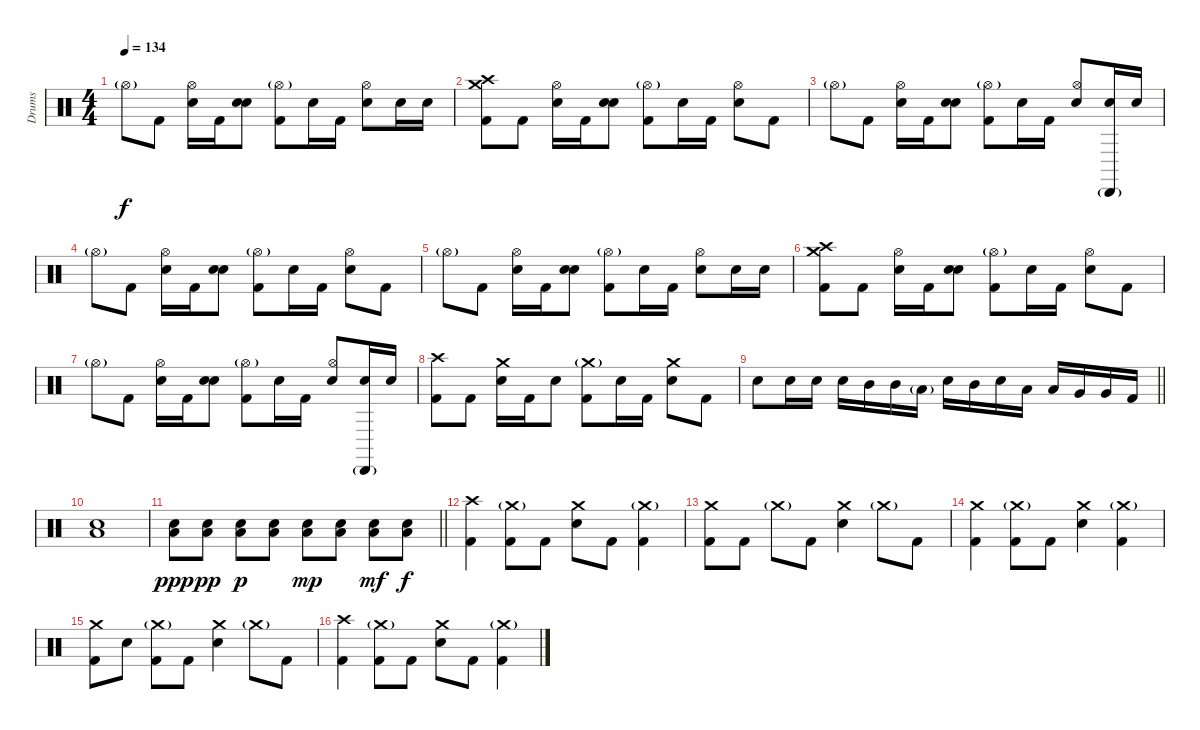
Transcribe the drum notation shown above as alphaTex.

\track ("Drums" "Drums") {instrument percussion}
\staff {score}
\articulation defaults
\ts (4 4)
\tempo 134
\clef neutral
\ks c "Hi-Hat (open)"{g}.8{dy f} "Kick (hit) 2".8
("Hi-Hat (open)" "Snare (hit) 2").16 "Kick (hit) 2".16 ("Snare (hit)" "Snare (hit)").8 ("Hi-Hat (open)"{g} "Kick (hit) 2").8 "Snare (hit)".16 "Kick (hit) 2".16 ("Hi-Hat (open)" "Snare (hit) 2").8 "Snare (hit) 2".16 "Snare (hit) 2".16 |
("Crash high (hit)" "Crash medium (hit)" "Kick (hit) 2").8 "Kick (hit) 2".8 ("Hi-Hat (open)" "Snare (hit) 2").16 "Kick (hit) 2".16 ("Snare (hit)" "Snare (hit)").8 ("Hi-Hat (open)"{g} "Kick (hit) 2").8 "Snare (hit)".16 "Kick (hit) 2".16 ("Hi-Hat (open)" "Snare (hit) 2").8 "Kick (hit) 2".8 |
"Hi-Hat (open)"{g}.8 "Kick (hit) 2".8 ("Hi-Hat (open)" "Snare (hit) 2").16 "Kick (hit) 2".16 ("Snare (hit)" "Snare (hit)").8 ("Hi-Hat (open)"{g} "Kick (hit) 2").8 "Snare (hit)".16 "Kick (hit) 2".16 ("Hi-Hat (open)" "Snare (hit) 2").8 ("Cabasa (hit)"{g} "Snare (hit)").16 "Snare (hit) 2".16 |
"Hi-Hat (open)"{g}.8 "Kick (hit) 2".8 ("Hi-Hat (open)" "Snare (hit) 2").16 "Kick (hit) 2".16 ("Snare (hit)" "Snare (hit)").8 ("Hi-Hat (open)"{g} "Kick (hit) 2").8 "Snare (hit)".16 "Kick (hit) 2".16 ("Hi-Hat (open)" "Snare (hit) 2").8 "Kick (hit) 2".8 |
"Hi-Hat (open)"{g}.8 "Kick (hit) 2".8 ("Hi-Hat (open)" "Snare (hit) 2").16 "Kick (hit) 2".16 ("Snare (hit)" "Snare (hit)").8 ("Hi-Hat (open)"{g} "Kick (hit) 2").8 "Snare (hit)".16 "Kick (hit) 2".16 ("Hi-Hat (open)" "Snare (hit) 2").8 "Snare (hit) 2".16 "Snare (hit) 2".16 |
("Crash high (hit)" "Crash medium (hit)" "Kick (hit) 2").8 "Kick (hit) 2".8 ("Hi-Hat (open)" "Snare (hit) 2").16 "Kick (hit) 2".16 ("Snare (hit)" "Snare (hit)").8 ("Hi-Hat (open)"{g} "Kick (hit) 2").8 "Snare (hit)".16 "Kick (hit) 2".16 ("Hi-Hat (open)" "Snare (hit) 2").8 "Kick (hit) 2".8 |
"Hi-Hat (open)"{g}.8 "Kick (hit) 2".8 ("Hi-Hat (open)" "Snare (hit) 2").16 "Kick (hit) 2".16 ("Snare (hit)" "Snare (hit)").8 ("Hi-Hat (open)"{g} "Kick (hit) 2").8 "Snare (hit)".16 "Kick (hit) 2".16 ("Hi-Hat (open)" "Snare (hit) 2").8 ("Cabasa (hit)"{g} "Snare (hit)").16 "Snare (hit) 2".16 |
("Crash high (hit)" "Kick (hit) 2").8 "Kick (hit) 2".8 ("Crash medium (hit)" "Snare (hit) 2").16 "Kick (hit) 2".16 "Snare (hit)".8 ("Crash medium (hit)"{g} "Kick (hit) 2").8 "Snare (hit)".16 "Kick (hit) 2".16 ("Crash medium (hit)" "Snare (hit) 2").8 "Kick (hit) 2".8 |
\barLineRight lightlight "Snare (hit) 2".8 "Snare (hit) 2".16 "Snare (hit) 2".16 "Snare (hit)".16 "Mid Tom (hit)".16 "Mid Tom (hit)".16 "Low Tom (hit)"{g}.16 "Snare (hit) 2".16 "Mid Tom (hit)".16 "Snare (hit) 2".16 "Low Tom (hit)".16 "Low Tom (hit)".16 "Very Low Tom (hit)".16 "Very Low Tom (hit)".16 "Kick (hit) 2".16
|
("Low Tom (hit)" "Snare (hit) 2").1 |
\barLineRight lightlight
("Low Tom (hit)" "Snare (hit) 2").8{dy ppp} ("Low Tom (hit)" "Snare (hit) 2").8{dy pp} ("Low Tom (hit)" "Snare (hit) 2").8{dy p} ("Low Tom (hit)" "Snare (hit) 2").8 ("Low Tom (hit)" "Snare (hit) 2").8{dy mp} ("Low Tom (hit)" "Snare (hit) 2").8 ("Low Tom (hit)" "Snare (hit) 2").8{dy mf} ("Low Tom (hit)" "Snare (hit) 2").8{dy f} |
("Crash high (hit)" "Kick (hit) 2").4 ("Crash medium (hit)"{g} "Kick (hit) 2").8 "Kick (hit) 2".8 ("Crash medium (hit)" "Snare (hit) 2").8 "Kick (hit) 2".8 ("Crash medium (hit)"{g} "Kick (hit) 2").4 |
("Crash medium (hit)" "Kick (hit) 2").8 "Kick (hit) 2".8 "Crash medium (hit)"{g}.8 "Kick (hit) 2".8 ("Crash medium (hit)" "Snare (hit) 2").4 "Crash medium (hit)"{g}.8 "Kick (hit) 2".8 |
("Crash medium (hit)" "Kick (hit) 2").4 ("Crash medium (hit)"{g} "Kick (hit) 2").8 "Kick (hit) 2".8 ("Crash medium (hit)" "Snare (hit) 2").4 ("Crash medium (hit)"{g} "Kick (hit) 2").4 |
("Crash medium (hit)" "Kick (hit) 2").8 "Snare (hit) 2".8 ("Crash medium (hit)"{g} "Kick (hit) 2").8 "Kick (hit) 2".8 ("Crash medium (hit)" "Snare (hit) 2").4 "Crash medium (hit)"{g}.8 "Kick (hit) 2".8 |
("Crash high (hit)" "Kick (hit) 2").4 ("Crash medium (hit)"{g} "Kick (hit) 2").8 "Kick (hit) 2".8 ("Crash medium (hit)" "Snare (hit) 2").8 "Kick (hit) 2".8 ("Crash medium (hit)"{g} "Kick (hit) 2").4
